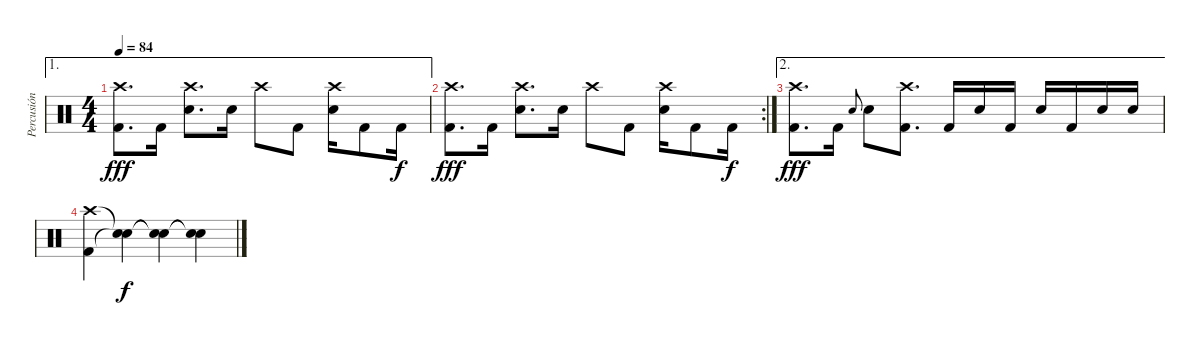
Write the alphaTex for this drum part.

\track ("Percusión" "Percusión") {instrument percussion}
\staff {score}
\articulation defaults
\ae 1
\ts (4 4)
\tempo 84
\clef neutral
\ks c
("Crash high (hit)" "Kick (hit) 2").8{d dy fff} "Kick (hit) 2".16 ("Crash high (hit)" "Snare (hit) 2").8{d} "Snare (hit) 2".16 "Crash high (hit)".8 "Kick (hit) 2".8 ("Crash high (hit)" "Snare (hit) 2").16 "Kick (hit) 2".8 "Kick (hit) 2".16{dy f} |
\rc 2
("Crash high (hit)" "Kick (hit) 2").8{d dy fff} "Kick (hit) 2".16 ("Crash high (hit)" "Snare (hit) 2").8{d} "Snare (hit) 2".16 "Crash high (hit)".8 "Kick (hit) 2".8 ("Crash high (hit)" "Snare (hit) 2").16 "Kick (hit) 2".8 "Kick (hit) 2".16{dy f} |
\ae 2
("Crash high (hit)" "Kick (hit) 2").8{d dy fff} "Kick (hit) 2".16 "Snare (hit) 2".8{gr onbeat} "Snare (hit) 2".8 ("Crash high (hit)" "Kick (hit) 2").8{d} "Kick (hit) 2".16 "Snare (hit) 2".16 "Kick (hit) 2".16 "Snare (hit) 2".16 "Kick (hit) 2".16 "Snare (hit) 2".16 "Snare (hit) 2".16 |
("Crash high (hit)" "Kick (hit) 2").4 ("Snare (hit)"{t} "Snare (hit)"{t}).4{dy f} ("Snare (hit)"{t} "Snare (hit)"{t}).4 ("Snare (hit)"{t} "Snare (hit)"{t}).4
